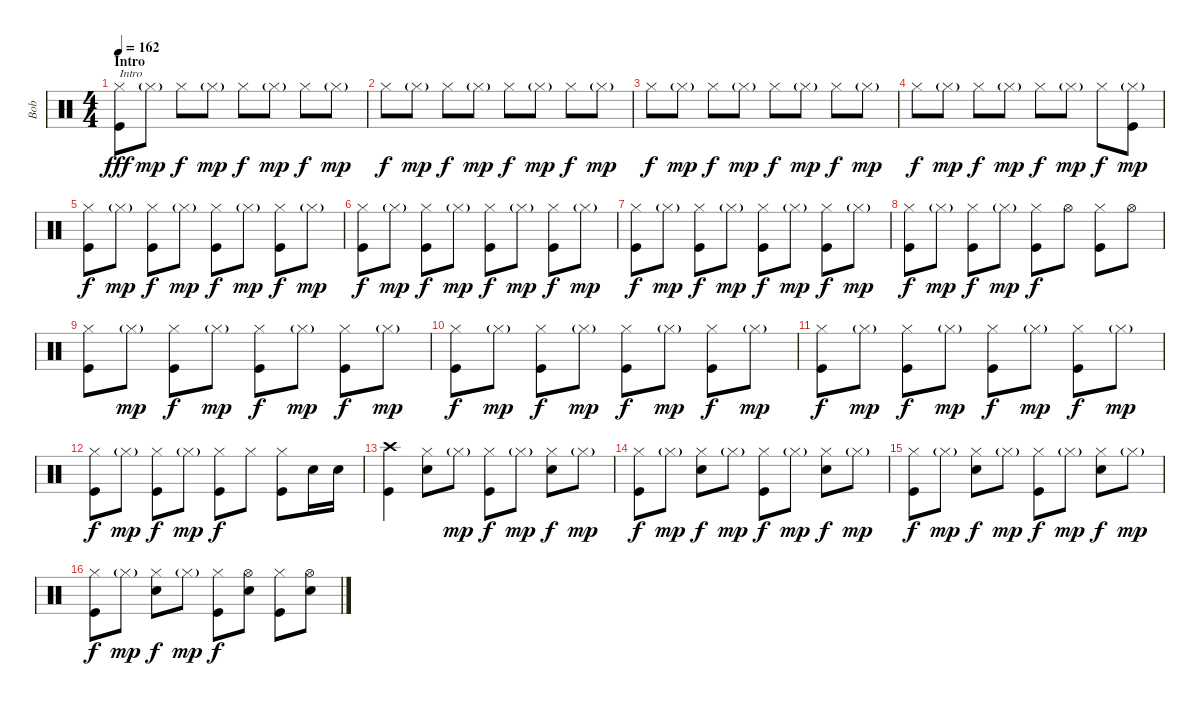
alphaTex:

\track ("Bob" "Bob") {instrument percussion}
\staff {score}
\articulation defaults
\ts (4 4)
\section ("" "Intro")
\tempo 162
\clef neutral
\ks c
("Hi-Hat (closed)" "Kick (hit)").8{txt "Intro" dy fff} "Hi-Hat (closed)"{g}.8{dy mp} "Hi-Hat (closed)".8{dy f} "Hi-Hat (closed)"{g}.8{dy mp} "Hi-Hat (closed)".8{dy f} "Hi-Hat (closed)"{g}.8{dy mp} "Hi-Hat (closed)".8{dy f} "Hi-Hat (closed)"{g}.8{dy mp} |
"Hi-Hat (closed)".8{dy f} "Hi-Hat (closed)"{g}.8{dy mp} "Hi-Hat (closed)".8{dy f} "Hi-Hat (closed)"{g}.8{dy mp} "Hi-Hat (closed)".8{dy f} "Hi-Hat (closed)"{g}.8{dy mp} "Hi-Hat (closed)".8{dy f} "Hi-Hat (closed)"{g}.8{dy mp} |
"Hi-Hat (closed)".8{dy f} "Hi-Hat (closed)"{g}.8{dy mp} "Hi-Hat (closed)".8{dy f} "Hi-Hat (closed)"{g}.8{dy mp} "Hi-Hat (closed)".8{dy f} "Hi-Hat (closed)"{g}.8{dy mp} "Hi-Hat (closed)".8{dy f} "Hi-Hat (closed)"{g}.8{dy mp} |
"Hi-Hat (closed)".8{dy f} "Hi-Hat (closed)"{g}.8{dy mp} "Hi-Hat (closed)".8{dy f} "Hi-Hat (closed)"{g}.8{dy mp} "Hi-Hat (closed)".8{dy f} "Hi-Hat (closed)"{g}.8{dy mp} "Hi-Hat (closed)".8{dy f} ("Hi-Hat (closed)"{g} "Kick (hit)").8{dy mp} |
("Hi-Hat (closed)" "Kick (hit)").8{dy f} "Hi-Hat (closed)"{g}.8{dy mp} ("Hi-Hat (closed)" "Kick (hit)").8{dy f} "Hi-Hat (closed)"{g}.8{dy mp} ("Hi-Hat (closed)" "Kick (hit)").8{dy f} "Hi-Hat (closed)"{g}.8{dy mp} ("Hi-Hat (closed)" "Kick (hit)").8{dy f} "Hi-Hat (closed)"{g}.8{dy mp} |
("Hi-Hat (closed)" "Kick (hit)").8{dy f} "Hi-Hat (closed)"{g}.8{dy mp} ("Hi-Hat (closed)" "Kick (hit)").8{dy f} "Hi-Hat (closed)"{g}.8{dy mp} ("Hi-Hat (closed)" "Kick (hit)").8{dy f} "Hi-Hat (closed)"{g}.8{dy mp} ("Hi-Hat (closed)" "Kick (hit)").8{dy f} "Hi-Hat (closed)"{g}.8{dy mp} |
("Hi-Hat (closed)" "Kick (hit)").8{dy f} "Hi-Hat (closed)"{g}.8{dy mp} ("Hi-Hat (closed)" "Kick (hit)").8{dy f} "Hi-Hat (closed)"{g}.8{dy mp} ("Hi-Hat (closed)" "Kick (hit)").8{dy f} "Hi-Hat (closed)"{g}.8{dy mp} ("Hi-Hat (closed)" "Kick (hit)").8{dy f} "Hi-Hat (closed)"{g}.8{dy mp} |
("Hi-Hat (closed)" "Kick (hit)").8{dy f} "Hi-Hat (closed)"{g}.8{dy mp} ("Hi-Hat (closed)" "Kick (hit)").8{dy f} "Hi-Hat (closed)"{g}.8{dy mp} ("Hi-Hat (closed)" "Kick (hit)").8{dy f} "Hi-Hat (open)".8 ("Hi-Hat (closed)" "Kick (hit)").8 "Hi-Hat (open)".8 |
("Hi-Hat (closed)" "Kick (hit)").8 "Hi-Hat (closed)"{g}.8{dy mp} ("Hi-Hat (closed)" "Kick (hit)").8{dy f} "Hi-Hat (closed)"{g}.8{dy mp} ("Hi-Hat (closed)" "Kick (hit)").8{dy f} "Hi-Hat (closed)"{g}.8{dy mp} ("Hi-Hat (closed)" "Kick (hit)").8{dy f} "Hi-Hat (closed)"{g}.8{dy mp} |
("Hi-Hat (closed)" "Kick (hit)").8{dy f} "Hi-Hat (closed)"{g}.8{dy mp} ("Hi-Hat (closed)" "Kick (hit)").8{dy f} "Hi-Hat (closed)"{g}.8{dy mp} ("Hi-Hat (closed)" "Kick (hit)").8{dy f} "Hi-Hat (closed)"{g}.8{dy mp} ("Hi-Hat (closed)" "Kick (hit)").8{dy f} "Hi-Hat (closed)"{g}.8{dy mp} |
("Hi-Hat (closed)" "Kick (hit)").8{dy f} "Hi-Hat (closed)"{g}.8{dy mp} ("Hi-Hat (closed)" "Kick (hit)").8{dy f} "Hi-Hat (closed)"{g}.8{dy mp} ("Hi-Hat (closed)" "Kick (hit)").8{dy f} "Hi-Hat (closed)"{g}.8{dy mp} ("Hi-Hat (closed)" "Kick (hit)").8{dy f} "Hi-Hat (closed)"{g}.8{dy mp} |
("Hi-Hat (closed)" "Kick (hit)").8{dy f} "Hi-Hat (closed)"{g}.8{dy mp} ("Hi-Hat (closed)" "Kick (hit)").8{dy f} "Hi-Hat (closed)"{g}.8{dy mp} ("Hi-Hat (closed)" "Kick (hit)").8{dy f} "Hi-Hat (closed)".8 ("Hi-Hat (closed)" "Kick (hit)").8 "Electric Snare (hit)".16 "Electric Snare (hit)".16 |
("Crash high (hit)" "Kick (hit)").4 ("Hi-Hat (closed)" "Electric Snare (hit)").8 "Hi-Hat (closed)"{g}.8{dy mp} ("Hi-Hat (closed)" "Kick (hit)").8{dy f} "Hi-Hat (closed)"{g}.8{dy mp} ("Hi-Hat (closed)" "Electric Snare (hit)").8{dy f} "Hi-Hat (closed)"{g}.8{dy mp} |
("Hi-Hat (closed)" "Kick (hit)").8{dy f} "Hi-Hat (closed)"{g}.8{dy mp} ("Hi-Hat (closed)" "Electric Snare (hit)").8{dy f} "Hi-Hat (closed)"{g}.8{dy mp} ("Hi-Hat (closed)" "Kick (hit)").8{dy f} "Hi-Hat (closed)"{g}.8{dy mp} ("Hi-Hat (closed)" "Electric Snare (hit)").8{dy f} "Hi-Hat (closed)"{g}.8{dy mp} |
("Hi-Hat (closed)" "Kick (hit)").8{dy f} "Hi-Hat (closed)"{g}.8{dy mp} ("Hi-Hat (closed)" "Electric Snare (hit)").8{dy f} "Hi-Hat (closed)"{g}.8{dy mp} ("Hi-Hat (closed)" "Kick (hit)").8{dy f} "Hi-Hat (closed)"{g}.8{dy mp} ("Hi-Hat (closed)" "Electric Snare (hit)").8{dy f} "Hi-Hat (closed)"{g}.8{dy mp} |
("Hi-Hat (closed)" "Kick (hit)").8{dy f} "Hi-Hat (closed)"{g}.8{dy mp} ("Hi-Hat (closed)" "Electric Snare (hit)").8{dy f} "Hi-Hat (closed)"{g}.8{dy mp} ("Hi-Hat (closed)" "Kick (hit)").8{dy f} ("Hi-Hat (open)" "Electric Snare (hit)").8 ("Hi-Hat (closed)" "Kick (hit)").8 ("Hi-Hat (open)" "Electric Snare (hit)").8
